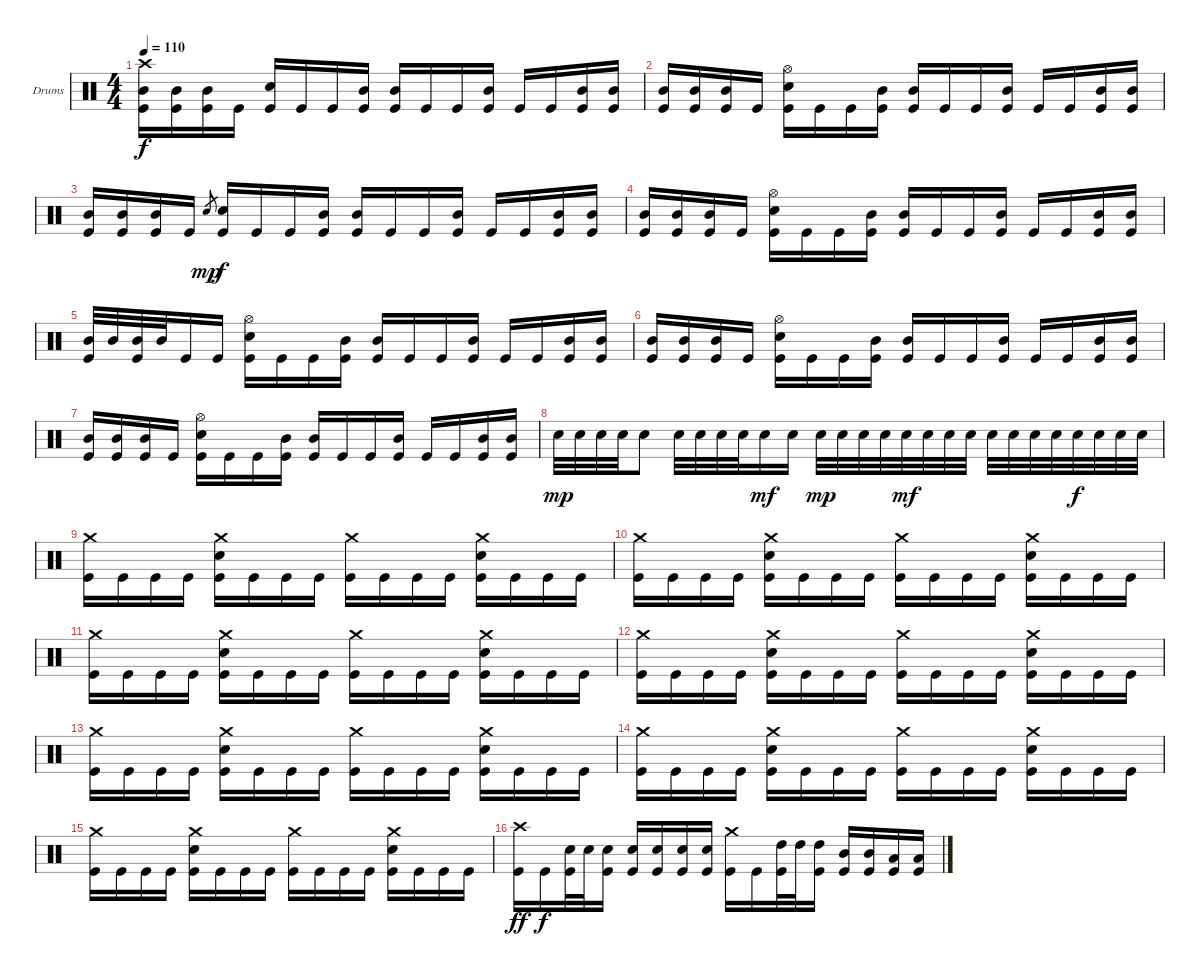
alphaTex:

\defaultSystemsLayout 4
\bracketExtendMode groupsimilarinstruments
\firstSystemTrackNameOrientation horizontal
\otherSystemsTrackNameOrientation horizontal
\track ("Drumkit" "Drums") {instrument percussion}
\staff {score}
\articulation defaults
\ts (4 4)
\tempo 110
\clef neutral
\ks c
("Crash high (hit)" "Mid Tom (hit)" "Kick (hit)").16{dy f} ("Mid Tom (hit)" "Kick (hit)").16 ("Mid Tom (hit)" "Kick (hit)").16 "Kick (hit)".16 ("Snare (hit) 2" "Kick (hit)").16 "Kick (hit)".16 "Kick (hit)".16 ("Mid Tom (hit)" "Kick (hit)").16 ("Mid Tom (hit)" "Kick (hit)").16 "Kick (hit)".16 "Kick (hit)".16 ("Mid Tom (hit)" "Kick (hit)").16 "Kick (hit)".16 "Kick (hit)".16 ("Mid Tom (hit)" "Kick (hit)").16 ("Mid Tom (hit)" "Kick (hit)").16 |
("Mid Tom (hit)" "Kick (hit)").16 ("Mid Tom (hit)" "Kick (hit)").16 ("Mid Tom (hit)" "Kick (hit)").16 "Kick (hit)".16 ("Hi-Hat (open)" "Snare (hit) 2" "Kick (hit)").16 "Kick (hit)".16 "Kick (hit)".16 ("Mid Tom (hit)" "Kick (hit)").16 ("Mid Tom (hit)" "Kick (hit)").16 "Kick (hit)".16 "Kick (hit)".16 ("Mid Tom (hit)" "Kick (hit)").16 "Kick (hit)".16 "Kick (hit)".16 ("Mid Tom (hit)" "Kick (hit)").16 ("Mid Tom (hit)" "Kick (hit)").16 |
("Mid Tom (hit)" "Kick (hit)").16 ("Mid Tom (hit)" "Kick (hit)").16 ("Mid Tom (hit)" "Kick (hit)").16 "Kick (hit)".16 "Snare (hit) 2".8{gr dy mp} ("Snare (hit) 2" "Kick (hit)").16{dy f} "Kick (hit)".16 "Kick (hit)".16 ("Mid Tom (hit)" "Kick (hit)").16 ("Mid Tom (hit)" "Kick (hit)").16 "Kick (hit)".16 "Kick (hit)".16 ("Mid Tom (hit)" "Kick (hit)").16 "Kick (hit)".16 "Kick (hit)".16 ("Mid Tom (hit)" "Kick (hit)").16 ("Mid Tom (hit)" "Kick (hit)").16 |
("Mid Tom (hit)" "Kick (hit)").16 ("Mid Tom (hit)" "Kick (hit)").16 ("Mid Tom (hit)" "Kick (hit)").16 "Kick (hit)".16 ("Hi-Hat (open)" "Snare (hit) 2" "Kick (hit)").16 "Kick (hit)".16 "Kick (hit)".16 ("Mid Tom (hit)" "Kick (hit)").16 ("Mid Tom (hit)" "Kick (hit)").16 "Kick (hit)".16 "Kick (hit)".16 ("Mid Tom (hit)" "Kick (hit)").16 "Kick (hit)".16 "Kick (hit)".16 ("Mid Tom (hit)" "Kick (hit)").16 ("Mid Tom (hit)" "Kick (hit)").16 |
("Mid Tom (hit)" "Kick (hit)").32 "Mid Tom (hit)".32 ("Mid Tom (hit)" "Kick (hit)").32 "Mid Tom (hit)".32 "Kick (hit)".16 "Kick (hit)".16 ("Hi-Hat (open)" "Snare (hit) 2" "Kick (hit)").16 "Kick (hit)".16 "Kick (hit)".16 ("Mid Tom (hit)" "Kick (hit)").16 ("Mid Tom (hit)" "Kick (hit)").16 "Kick (hit)".16 "Kick (hit)".16 ("Mid Tom (hit)" "Kick (hit)").16 "Kick (hit)".16 "Kick (hit)".16 ("Mid Tom (hit)" "Kick (hit)").16 ("Mid Tom (hit)" "Kick (hit)").16 |
("Mid Tom (hit)" "Kick (hit)").16 ("Mid Tom (hit)" "Kick (hit)").16 ("Mid Tom (hit)" "Kick (hit)").16 "Kick (hit)".16 ("Hi-Hat (open)" "Snare (hit) 2" "Kick (hit)").16 "Kick (hit)".16 "Kick (hit)".16 ("Mid Tom (hit)" "Kick (hit)").16 ("Mid Tom (hit)" "Kick (hit)").16 "Kick (hit)".16 "Kick (hit)".16 ("Mid Tom (hit)" "Kick (hit)").16 "Kick (hit)".16 "Kick (hit)".16 ("Mid Tom (hit)" "Kick (hit)").16 ("Mid Tom (hit)" "Kick (hit)").16 |
("Mid Tom (hit)" "Kick (hit)").16 ("Mid Tom (hit)" "Kick (hit)").16 ("Mid Tom (hit)" "Kick (hit)").16 "Kick (hit)".16 ("Hi-Hat (open)" "Snare (hit) 2" "Kick (hit)").16 "Kick (hit)".16 "Kick (hit)".16 ("Mid Tom (hit)" "Kick (hit)").16 ("Mid Tom (hit)" "Kick (hit)").16 "Kick (hit)".16 "Kick (hit)".16 ("Mid Tom (hit)" "Kick (hit)").16 "Kick (hit)".16 "Kick (hit)".16 ("Mid Tom (hit)" "Kick (hit)").16 ("Mid Tom (hit)" "Kick (hit)").16 |
"Snare (hit) 2".32{dy mp} "Snare (hit) 2".32 "Snare (hit) 2".32 "Snare (hit) 2".32 "Snare (hit) 2".8 "Snare (hit) 2".32 "Snare (hit) 2".32 "Snare (hit) 2".32 "Snare (hit) 2".32 "Snare (hit) 2".16{dy mf} "Snare (hit) 2".16 "Snare (hit) 2".32{dy mp} "Snare (hit) 2".32 "Snare (hit) 2".32 "Snare (hit) 2".32 "Snare (hit) 2".32{dy mf} "Snare (hit) 2".32 "Snare (hit) 2".32 "Snare (hit) 2".32 "Snare (hit) 2".32 "Snare (hit) 2".32 "Snare (hit) 2".32 "Snare (hit) 2".32 "Snare (hit) 2".32{dy f} "Snare (hit) 2".32 "Snare (hit) 2".32 "Snare (hit) 2".32 |
("Crash medium (hit)" "Kick (hit)").16 "Kick (hit)".16 "Kick (hit)".16 "Kick (hit)".16 ("Crash medium (hit)" "Snare (hit) 2" "Kick (hit)").16 "Kick (hit)".16 "Kick (hit)".16 "Kick (hit)".16 ("Crash medium (hit)" "Kick (hit)").16 "Kick (hit)".16 "Kick (hit)".16 "Kick (hit)".16 ("Crash medium (hit)" "Snare (hit) 2" "Kick (hit)").16 "Kick (hit)".16 "Kick (hit)".16 "Kick (hit)".16 |
("Crash medium (hit)" "Kick (hit)").16 "Kick (hit)".16 "Kick (hit)".16 "Kick (hit)".16 ("Crash medium (hit)" "Snare (hit) 2" "Kick (hit)").16 "Kick (hit)".16 "Kick (hit)".16 "Kick (hit)".16 ("Crash medium (hit)" "Kick (hit)").16 "Kick (hit)".16 "Kick (hit)".16 "Kick (hit)".16 ("Crash medium (hit)" "Snare (hit) 2" "Kick (hit)").16 "Kick (hit)".16 "Kick (hit)".16 "Kick (hit)".16 |
("Crash medium (hit)" "Kick (hit)").16 "Kick (hit)".16 "Kick (hit)".16 "Kick (hit)".16 ("Crash medium (hit)" "Snare (hit) 2" "Kick (hit)").16 "Kick (hit)".16 "Kick (hit)".16 "Kick (hit)".16 ("Crash medium (hit)" "Kick (hit)").16 "Kick (hit)".16 "Kick (hit)".16 "Kick (hit)".16 ("Crash medium (hit)" "Snare (hit) 2" "Kick (hit)").16 "Kick (hit)".16 "Kick (hit)".16 "Kick (hit)".16 |
("Crash medium (hit)" "Kick (hit)").16 "Kick (hit)".16 "Kick (hit)".16 "Kick (hit)".16 ("Crash medium (hit)" "Snare (hit) 2" "Kick (hit)").16 "Kick (hit)".16 "Kick (hit)".16 "Kick (hit)".16 ("Crash medium (hit)" "Kick (hit)").16 "Kick (hit)".16 "Kick (hit)".16 "Kick (hit)".16 ("Crash medium (hit)" "Snare (hit) 2" "Kick (hit)").16 "Kick (hit)".16 "Kick (hit)".16 "Kick (hit)".16 |
("Crash medium (hit)" "Kick (hit)").16 "Kick (hit)".16 "Kick (hit)".16 "Kick (hit)".16 ("Crash medium (hit)" "Snare (hit) 2" "Kick (hit)").16 "Kick (hit)".16 "Kick (hit)".16 "Kick (hit)".16 ("Crash medium (hit)" "Kick (hit)").16 "Kick (hit)".16 "Kick (hit)".16 "Kick (hit)".16 ("Crash medium (hit)" "Snare (hit) 2" "Kick (hit)").16 "Kick (hit)".16 "Kick (hit)".16 "Kick (hit)".16 |
("Crash medium (hit)" "Kick (hit)").16 "Kick (hit)".16 "Kick (hit)".16 "Kick (hit)".16 ("Crash medium (hit)" "Snare (hit) 2" "Kick (hit)").16 "Kick (hit)".16 "Kick (hit)".16 "Kick (hit)".16 ("Crash medium (hit)" "Kick (hit)").16 "Kick (hit)".16 "Kick (hit)".16 "Kick (hit)".16 ("Crash medium (hit)" "Snare (hit) 2" "Kick (hit)").16 "Kick (hit)".16 "Kick (hit)".16 "Kick (hit)".16 |
("Crash medium (hit)" "Kick (hit)").16 "Kick (hit)".16 "Kick (hit)".16 "Kick (hit)".16 ("Crash medium (hit)" "Snare (hit) 2" "Kick (hit)").16 "Kick (hit)".16 "Kick (hit)".16 "Kick (hit)".16 ("Crash medium (hit)" "Kick (hit)").16 "Kick (hit)".16 "Kick (hit)".16 "Kick (hit)".16 ("Crash medium (hit)" "Snare (hit) 2" "Kick (hit)").16 "Kick (hit)".16 "Kick (hit)".16 "Kick (hit)".16 |
("Crash high (hit)" "Kick (hit)").16{dy ff} "Kick (hit)".16{dy f} ("Snare (hit) 2" "Kick (hit)").32 "Snare (hit) 2".32 ("Snare (hit) 2" "Kick (hit)").16 ("Snare (hit) 2" "Kick (hit)").16 ("Snare (hit) 2" "Kick (hit)").16 ("Snare (hit) 2" "Kick (hit)").16 ("Snare (hit) 2" "Kick (hit)").16 ("Crash medium (hit)" "Kick (hit)").16 "Kick (hit)".16 ("High Tom (hit)" "Kick (hit)").32 "High Tom (hit)".32 ("High Tom (hit)" "Kick (hit)").16 ("Mid Tom (hit)" "Kick (hit)").16 ("Mid Tom (hit)" "Kick (hit)").16 ("Low Tom (hit)" "Kick (hit)").16 ("Low Tom (hit)" "Kick (hit)").16
